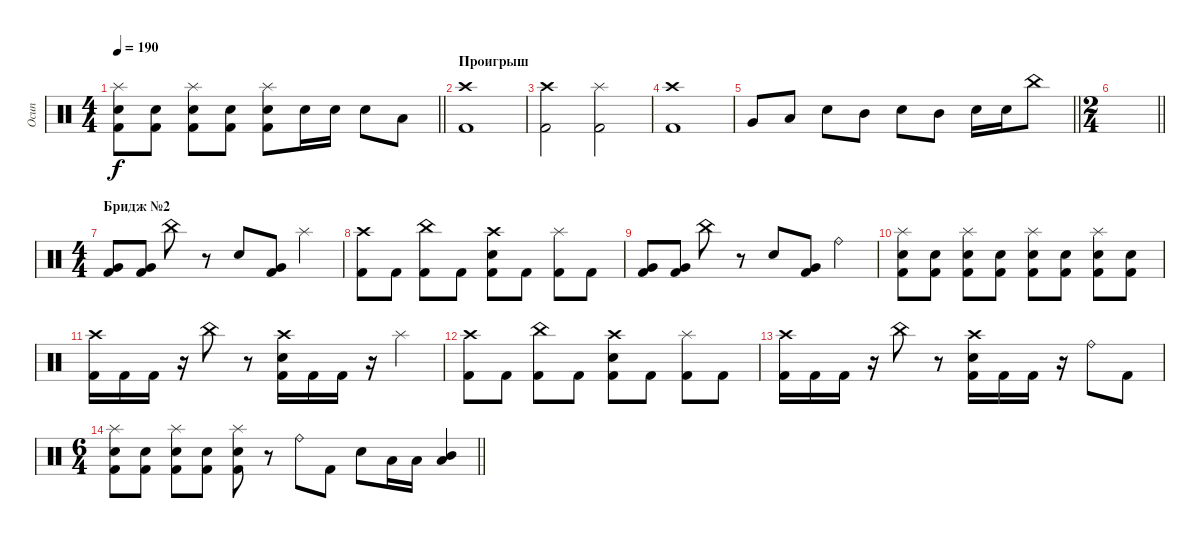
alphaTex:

\track ("Осип" "Осип") {instrument percussion}
\staff {score}
\articulation defaults
\ts (4 4)
\tempo 190
\clef neutral
\barLineRight lightlight
\ks c
("Kick (hit) 2" "Electric Snare (hit)" "Splash (hit)").8{dy f} ("Kick (hit) 2" "Electric Snare (hit)").8 ("Kick (hit) 2" "Electric Snare (hit)" "Splash (hit)").8 ("Kick (hit) 2" "Electric Snare (hit)").8 ("Kick (hit) 2" "Electric Snare (hit)" "Splash (hit)").8 "Electric Snare (hit)".16 "Electric Snare (hit)".16 "Electric Snare (hit)".8 "Low Tom (hit)".8 |
\section ("" "Проигрыш")
("Kick (hit) 2" "Crash high (hit)").1 |
("Kick (hit) 2" "Crash high (hit)").2 ("Kick (hit) 2" "Splash (hit)").2 |
("Kick (hit) 2" "Crash high (hit)").1 |
\barLineRight lightlight "Very Low Tom (hit)".8 "Low Tom (hit)".8 "Electric Snare (hit)".8 "Mid Tom (hit)".8 "Electric Snare (hit)".8 "Mid Tom (hit)".8 "Electric Snare (hit)".16 "Electric Snare (hit)".16 "China (hit)".8
|
\ts (2 4)
\barLineRight lightlight
|
\ts (4 4)
\section ("" "Бридж №2")
("Kick (hit) 2" "Very Low Tom (hit)").8 ("Kick (hit) 2" "Very Low Tom (hit)").8 "China (hit)".8 r.8 "Electric Snare (hit)".8 ("Kick (hit) 2" "Very Low Tom (hit)").8 "Splash (hit)".4 |
("Kick (hit) 2" "Crash high (hit)").8 "Kick (hit) 2".8 ("Kick (hit) 2" "China (hit)").8 "Kick (hit) 2".8 ("Kick (hit) 2" "Electric Snare (hit)" "Crash high (hit)").8 "Kick (hit) 2".8 ("Kick (hit) 2" "Splash (hit)").8 "Kick (hit) 2".8 |
("Kick (hit) 2" "Very Low Tom (hit)").8 ("Kick (hit) 2" "Very Low Tom (hit)").8 "China (hit)".8 r.8 "Electric Snare (hit)".8 ("Kick (hit) 2" "Very Low Tom (hit)").8 "Ride (bell)".4 |
("Kick (hit) 2" "Electric Snare (hit)" "Splash (hit)").8 ("Kick (hit) 2" "Electric Snare (hit)").8 ("Kick (hit) 2" "Electric Snare (hit)" "Splash (hit)").8 ("Kick (hit) 2" "Electric Snare (hit)").8 ("Kick (hit) 2" "Electric Snare (hit)" "Splash (hit)").8 ("Kick (hit) 2" "Electric Snare (hit)").8 ("Kick (hit) 2" "Electric Snare (hit)" "Splash (hit)").8 ("Kick (hit) 2" "Electric Snare (hit)").8 |
("Kick (hit) 2" "Crash high (hit)").16 "Kick (hit) 2".16 "Kick (hit) 2".16 r.16 "China (hit)".8 r.8 ("Electric Snare (hit)" "Kick (hit) 2" "Crash high (hit)").16 "Kick (hit) 2".16 "Kick (hit) 2".16 r.16 "Splash (hit)".4 |
("Kick (hit) 2" "Crash high (hit)").8 "Kick (hit) 2".8 ("Kick (hit) 2" "China (hit)").8 "Kick (hit) 2".8 ("Kick (hit) 2" "Electric Snare (hit)" "Crash high (hit)").8 "Kick (hit) 2".8 ("Kick (hit) 2" "Splash (hit)").8 "Kick (hit) 2".8 |
("Kick (hit) 2" "Crash high (hit)").16 "Kick (hit) 2".16 "Kick (hit) 2".16 r.16 "China (hit)".8 r.8 ("Electric Snare (hit)" "Kick (hit) 2" "Crash high (hit)").16 "Kick (hit) 2".16 "Kick (hit) 2".16 r.16 "Ride (bell)".8 "Kick (hit) 2".8 |
\ts (6 4)
\barLineRight lightlight
("Kick (hit) 2" "Electric Snare (hit)" "Splash (hit)").8 ("Kick (hit) 2" "Electric Snare (hit)").8 ("Kick (hit) 2" "Electric Snare (hit)" "Splash (hit)").8 ("Kick (hit) 2" "Electric Snare (hit)").8 ("Kick (hit) 2" "Electric Snare (hit)" "Splash (hit)").8 r.8 "Ride (bell)".8 "Kick (hit) 2".8 "Electric Snare (hit)".8 "Low Tom (hit)".16 "Low Tom (hit)".16 ("Low Tom (hit)" "Mid Tom (hit)").4
